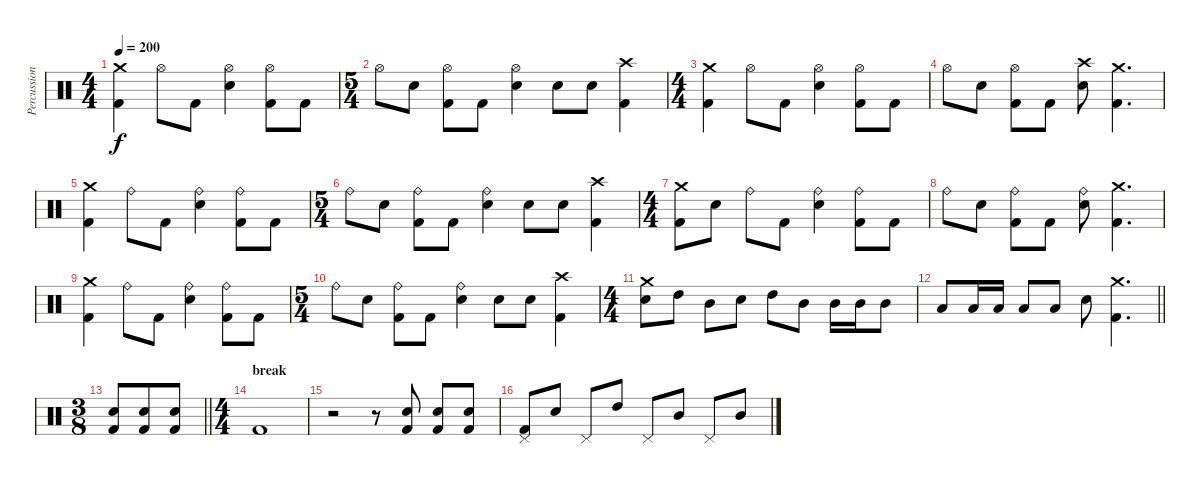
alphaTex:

\track ("Percussion" "Percussion") {instrument percussion}
\staff {score}
\articulation defaults
\ts (4 4)
\tempo 200
\clef neutral
\ks c
("Crash medium (hit)" "Kick (hit) 2").4{dy f} "Hi-Hat (open)".8 "Kick (hit) 2".8 ("Hi-Hat (open)" "Electric Snare (hit)").4 ("Hi-Hat (open)" "Kick (hit) 2").8 "Kick (hit) 2".8 |
\ts (5 4)
"Hi-Hat (open)".8 "Electric Snare (hit)".8 ("Hi-Hat (open)" "Kick (hit) 2").8 "Kick (hit) 2".8 ("Hi-Hat (open)" "Electric Snare (hit)").4 "Electric Snare (hit)".8 "Electric Snare (hit)".8 ("Crash high (hit)" "Kick (hit) 2").4 |
\ts (4 4)
("Crash medium (hit)" "Kick (hit) 2").4 "Hi-Hat (open)".8 "Kick (hit) 2".8 ("Hi-Hat (open)" "Electric Snare (hit)").4 ("Hi-Hat (open)" "Kick (hit) 2").8 "Kick (hit) 2".8 |
"Hi-Hat (open)".8 "Electric Snare (hit)".8 ("Hi-Hat (open)" "Kick (hit) 2").8 "Kick (hit) 2".8 ("Crash high (hit)" "Electric Snare (hit)").8 ("Crash medium (hit)" "Kick (hit) 2").4{d} |
("Crash medium (hit)" "Kick (hit) 2").4 "Ride (bell)".8 "Kick (hit) 2".8 ("Ride (bell)" "Electric Snare (hit)").4 ("Ride (bell)" "Kick (hit) 2").8 "Kick (hit) 2".8 |
\ts (5 4)
"Ride (bell)".8 "Electric Snare (hit)".8 ("Ride (bell)" "Kick (hit) 2").8 "Kick (hit) 2".8 ("Ride (bell)" "Electric Snare (hit)").4 "Electric Snare (hit)".8 "Electric Snare (hit)".8 ("Crash high (hit)" "Kick (hit) 2").4 |
\ts (4 4)
("Crash medium (hit)" "Kick (hit) 2").8 "Electric Snare (hit)".8 "Ride (bell)".8 "Kick (hit) 2".8 ("Ride (bell)" "Electric Snare (hit)").4 ("Ride (bell)" "Kick (hit) 2").8 "Kick (hit) 2".8 |
"Ride (bell)".8 "Electric Snare (hit)".8 ("Ride (bell)" "Kick (hit) 2").8 "Kick (hit) 2".8 ("Ride (bell)" "Electric Snare (hit)").8 ("Crash medium (hit)" "Kick (hit) 2").4{d} |
("Crash medium (hit)" "Kick (hit) 2").4 "Ride (bell)".8 "Kick (hit) 2".8 ("Ride (bell)" "Electric Snare (hit)").4 ("Ride (bell)" "Kick (hit) 2").8 "Kick (hit) 2".8 |
\ts (5 4)
"Ride (bell)".8 "Electric Snare (hit)".8 ("Ride (bell)" "Kick (hit) 2").8 "Kick (hit) 2".8 ("Ride (bell)" "Electric Snare (hit)").4 "Electric Snare (hit)".8 "Electric Snare (hit)".8 ("Crash high (hit)" "Kick (hit) 2").4 |
\ts (4 4)
("Crash medium (hit)" "Electric Snare (hit)").8 "High Tom (hit)".8 "Mid Tom (hit)".8 "Electric Snare (hit)".8 "High Tom (hit)".8 "Mid Tom (hit)".8 "Mid Tom (hit)".16 "Mid Tom (hit)".16 "Mid Tom (hit)".8 |
\barLineRight lightlight "Low Tom (hit)".8 "Low Tom (hit)".16 "Low Tom (hit)".16 "Low Tom (hit)".8 "Low Tom (hit)".8 "Electric Snare (hit)".8
("Crash medium (hit)" "Kick (hit) 2").4{d} |
\ts (3 8)
\barLineRight lightlight
("Electric Snare (hit)" "Kick (hit) 2").8 ("Electric Snare (hit)" "Kick (hit) 2").8 ("Electric Snare (hit)" "Kick (hit) 2").8 |
\ts (4 4)
\section ("" "break")
"Kick (hit) 2".1 |
r.2 r.8 ("Electric Snare (hit)" "Kick (hit) 2").8 ("Electric Snare (hit)" "Kick (hit) 2").8 ("Electric Snare (hit)" "Kick (hit) 2").8 |
("Pedal Hi-Hat (hit)" "Kick (hit) 2").8 "Electric Snare (hit)".8 "Pedal Hi-Hat (hit)".8 "High Tom (hit)".8 "Pedal Hi-Hat (hit)".8 "Mid Tom (hit)".8 "Pedal Hi-Hat (hit)".8 "Mid Tom (hit)".8
